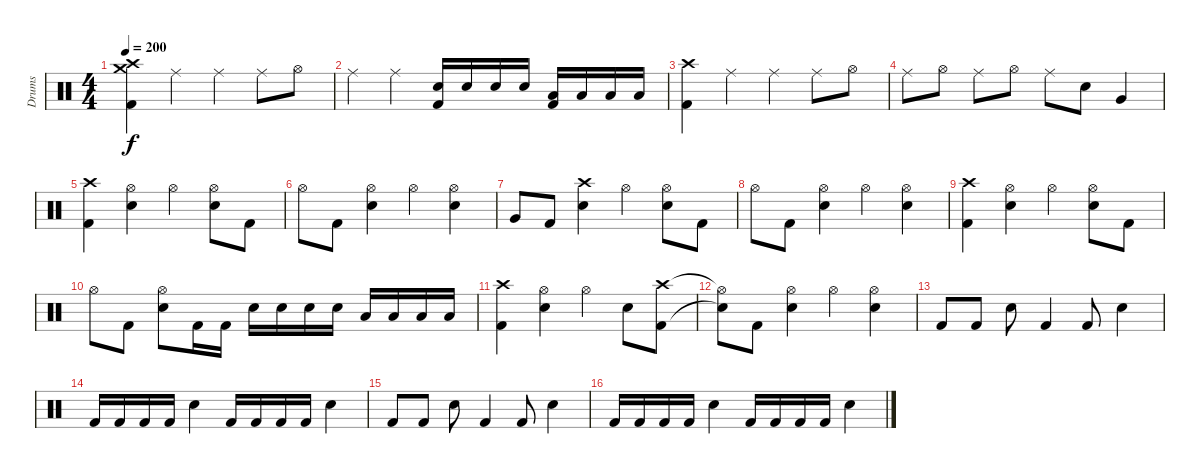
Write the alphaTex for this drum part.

\track ("Drums" "Drums") {instrument percussion}
\staff {score}
\articulation defaults
\ts (4 4)
\tempo 200
\clef neutral
\ks c
("Crash high (hit)" "Crash medium (hit)" "Kick (hit) 2").4{dy f} "Ride (middle)".4 "Ride (middle)".4 "Ride (middle)".8 "Hi-Hat (open)".8 |
"Ride (middle)".4 "Ride (middle)".4 ("Electric Snare (hit)" "Kick (hit) 2").16 "Electric Snare (hit)".16 "Electric Snare (hit)".16 "Electric Snare (hit)".16 ("Low Tom (hit)" "Kick (hit) 2").16 "Low Tom (hit)".16 "Low Tom (hit)".16 "Low Tom (hit)".16 |
("Crash high (hit)" "Kick (hit) 2").4 "Ride (middle)".4 "Ride (middle)".4 "Ride (middle)".8 "Hi-Hat (open)".8 |
"Ride (middle)".8 "Hi-Hat (open)".8 "Ride (middle)".8 "Hi-Hat (open)".8 "Ride (middle)".8 "Electric Snare (hit)".8 "Very Low Tom (hit)".4 |
("Crash high (hit)" "Kick (hit) 2").4 ("Hi-Hat (open)" "Electric Snare (hit)").4 "Hi-Hat (open)".4 ("Hi-Hat (open)" "Electric Snare (hit)").8 "Kick (hit) 2".8 |
"Hi-Hat (open)".8 "Kick (hit) 2".8 ("Hi-Hat (open)" "Electric Snare (hit)").4 "Hi-Hat (open)".4 ("Hi-Hat (open)" "Electric Snare (hit)").4 |
"Very Low Tom (hit)".8 "Kick (hit) 2".8 ("Crash high (hit)" "Electric Snare (hit)").4 "Hi-Hat (open)".4 ("Hi-Hat (open)" "Electric Snare (hit)").8 "Kick (hit) 2".8 |
"Hi-Hat (open)".8 "Kick (hit) 2".8 ("Hi-Hat (open)" "Electric Snare (hit)").4 "Hi-Hat (open)".4 ("Hi-Hat (open)" "Electric Snare (hit)").4 |
("Crash high (hit)" "Kick (hit) 2").4 ("Hi-Hat (open)" "Electric Snare (hit)").4 "Hi-Hat (open)".4 ("Hi-Hat (open)" "Electric Snare (hit)").8 "Kick (hit) 2".8 |
"Hi-Hat (open)".8 "Kick (hit) 2".8 ("Hi-Hat (open)" "Electric Snare (hit)").8 "Kick (hit) 2".16 "Kick (hit) 2".16 "Electric Snare (hit)".16 "Electric Snare (hit)".16 "Electric Snare (hit)".16 "Electric Snare (hit)".16 "Low Tom (hit)".16 "Low Tom (hit)".16 "Low Tom (hit)".16 "Low Tom (hit)".16 |
("Crash high (hit)" "Kick (hit) 2").4 ("Hi-Hat (open)" "Electric Snare (hit)").4 "Hi-Hat (open)".4 "Electric Snare (hit)".8 ("Crash high (hit)" "Kick (hit) 2").8 |
("Hi-Hat (open)"{t} "Snare (hit)"{t}).8 "Kick (hit) 2".8 ("Hi-Hat (open)" "Electric Snare (hit)").4 "Hi-Hat (open)".4 ("Hi-Hat (open)" "Electric Snare (hit)").4 |
"Kick (hit) 2".8 "Kick (hit) 2".8 "Electric Snare (hit)".8 "Kick (hit) 2".4 "Kick (hit) 2".8 "Electric Snare (hit)".4 |
"Kick (hit) 2".16 "Kick (hit) 2".16 "Kick (hit) 2".16 "Kick (hit) 2".16 "Electric Snare (hit)".4 "Kick (hit) 2".16 "Kick (hit) 2".16 "Kick (hit) 2".16 "Kick (hit) 2".16 "Electric Snare (hit)".4 |
"Kick (hit) 2".8 "Kick (hit) 2".8 "Electric Snare (hit)".8 "Kick (hit) 2".4 "Kick (hit) 2".8 "Electric Snare (hit)".4 |
"Kick (hit) 2".16 "Kick (hit) 2".16 "Kick (hit) 2".16 "Kick (hit) 2".16 "Electric Snare (hit)".4 "Kick (hit) 2".16 "Kick (hit) 2".16 "Kick (hit) 2".16 "Kick (hit) 2".16 "Electric Snare (hit)".4
